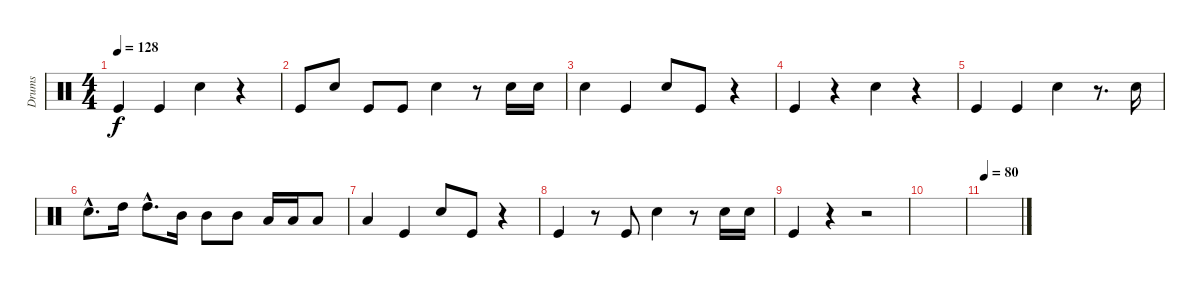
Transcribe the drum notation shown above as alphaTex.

\track ("Drums" "Drums") {instrument percussion}
\staff {score}
\articulation defaults
\ts (4 4)
\tempo 128
\clef neutral
\ks c "Kick (hit)".4{dy f} "Kick (hit)".4 "Snare (hit) 2".4
r.4 |
"Kick (hit)".8 "Snare (hit) 2".8 "Kick (hit)".8 "Kick (hit)".8 "Snare (hit) 2".4 r.8 "Snare (hit) 2".16 "Snare (hit) 2".16 |
"Snare (hit) 2".4 "Kick (hit)".4 "Snare (hit) 2".8 "Kick (hit)".8 r.4 |
"Kick (hit)".4 r.4 "Snare (hit) 2".4 r.4 |
"Kick (hit)".4 "Kick (hit)".4 "Snare (hit) 2".4 r.8{d} "Snare (hit) 2".16 |
"Snare (hit) 2"{hac}.8{d} "High Tom (hit)".16 "High Tom (hit)"{hac}.8{d} "Mid Tom (hit)".16 "Mid Tom (hit)".8 "Mid Tom (hit)".8 "Low Tom (hit)".16 "Low Tom (hit)".16 "Low Tom (hit)".8 |
"Low Tom (hit)".4 "Kick (hit)".4 "Snare (hit) 2".8 "Kick (hit)".8 r.4 |
"Kick (hit)".4 r.8 "Kick (hit)".8 "Snare (hit) 2".4 r.8 "Snare (hit) 2".16 "Snare (hit) 2".16 |
"Kick (hit)".4 r.4 r.2 |
|
\tempo 80
